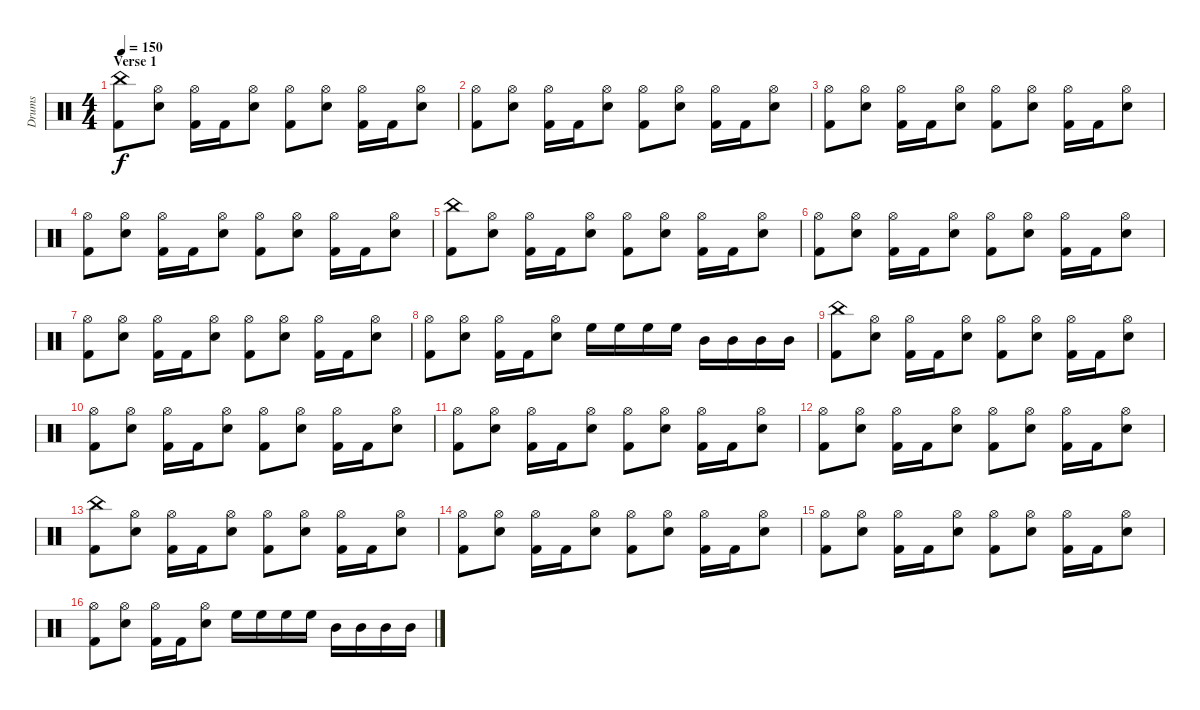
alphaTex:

\track ("Drums" "Drums") {instrument percussion}
\staff {score}
\articulation defaults
\ts (4 4)
\section ("" "Verse 1")
\tempo 150
\clef neutral
\ks c
("China (hit)" "Kick (hit) 2").8{dy f} ("Hi-Hat (open)" "Snare (hit) 2").8 ("Hi-Hat (open)" "Kick (hit) 2").16 "Kick (hit) 2".16 ("Hi-Hat (open)" "Snare (hit) 2").8 ("Hi-Hat (open)" "Kick (hit) 2").8 ("Hi-Hat (open)" "Snare (hit) 2").8 ("Hi-Hat (open)" "Kick (hit) 2").16 "Kick (hit) 2".16 ("Hi-Hat (open)" "Snare (hit) 2").8 |
("Hi-Hat (open)" "Kick (hit) 2").8 ("Hi-Hat (open)" "Snare (hit) 2").8 ("Hi-Hat (open)" "Kick (hit) 2").16 "Kick (hit) 2".16 ("Hi-Hat (open)" "Snare (hit) 2").8 ("Hi-Hat (open)" "Kick (hit) 2").8 ("Hi-Hat (open)" "Snare (hit) 2").8 ("Hi-Hat (open)" "Kick (hit) 2").16 "Kick (hit) 2".16 ("Hi-Hat (open)" "Snare (hit) 2").8 |
("Hi-Hat (open)" "Kick (hit) 2").8 ("Hi-Hat (open)" "Snare (hit) 2").8 ("Hi-Hat (open)" "Kick (hit) 2").16 "Kick (hit) 2".16 ("Hi-Hat (open)" "Snare (hit) 2").8 ("Hi-Hat (open)" "Kick (hit) 2").8 ("Hi-Hat (open)" "Snare (hit) 2").8 ("Hi-Hat (open)" "Kick (hit) 2").16 "Kick (hit) 2".16 ("Hi-Hat (open)" "Snare (hit) 2").8 |
("Hi-Hat (open)" "Kick (hit) 2").8 ("Hi-Hat (open)" "Snare (hit) 2").8 ("Hi-Hat (open)" "Kick (hit) 2").16 "Kick (hit) 2".16 ("Hi-Hat (open)" "Snare (hit) 2").8 ("Hi-Hat (open)" "Kick (hit) 2").8 ("Hi-Hat (open)" "Snare (hit) 2").8 ("Hi-Hat (open)" "Kick (hit) 2").16 "Kick (hit) 2".16 ("Hi-Hat (open)" "Snare (hit) 2").8 |
("China (hit)" "Kick (hit) 2").8 ("Hi-Hat (open)" "Snare (hit) 2").8 ("Hi-Hat (open)" "Kick (hit) 2").16 "Kick (hit) 2".16 ("Hi-Hat (open)" "Snare (hit) 2").8 ("Hi-Hat (open)" "Kick (hit) 2").8 ("Hi-Hat (open)" "Snare (hit) 2").8 ("Hi-Hat (open)" "Kick (hit) 2").16 "Kick (hit) 2".16 ("Hi-Hat (open)" "Snare (hit) 2").8 |
("Hi-Hat (open)" "Kick (hit) 2").8 ("Hi-Hat (open)" "Snare (hit) 2").8 ("Hi-Hat (open)" "Kick (hit) 2").16 "Kick (hit) 2".16 ("Hi-Hat (open)" "Snare (hit) 2").8 ("Hi-Hat (open)" "Kick (hit) 2").8 ("Hi-Hat (open)" "Snare (hit) 2").8 ("Hi-Hat (open)" "Kick (hit) 2").16 "Kick (hit) 2".16 ("Hi-Hat (open)" "Snare (hit) 2").8 |
("Hi-Hat (open)" "Kick (hit) 2").8 ("Hi-Hat (open)" "Snare (hit) 2").8 ("Hi-Hat (open)" "Kick (hit) 2").16 "Kick (hit) 2".16 ("Hi-Hat (open)" "Snare (hit) 2").8 ("Hi-Hat (open)" "Kick (hit) 2").8 ("Hi-Hat (open)" "Snare (hit) 2").8 ("Hi-Hat (open)" "Kick (hit) 2").16 "Kick (hit) 2".16 ("Hi-Hat (open)" "Snare (hit) 2").8 |
("Hi-Hat (open)" "Kick (hit) 2").8 ("Hi-Hat (open)" "Snare (hit) 2").8 ("Hi-Hat (open)" "Kick (hit) 2").16 "Kick (hit) 2".16 ("Hi-Hat (open)" "Snare (hit) 2").8 "High Floor Tom (hit)".16 "High Floor Tom (hit)".16 "High Floor Tom (hit)".16 "High Floor Tom (hit)".16 "Mid Tom (hit)".16 "Mid Tom (hit)".16 "Mid Tom (hit)".16 "Mid Tom (hit)".16 |
("China (hit)" "Kick (hit) 2").8 ("Hi-Hat (open)" "Snare (hit) 2").8 ("Hi-Hat (open)" "Kick (hit) 2").16 "Kick (hit) 2".16 ("Hi-Hat (open)" "Snare (hit) 2").8 ("Hi-Hat (open)" "Kick (hit) 2").8 ("Hi-Hat (open)" "Snare (hit) 2").8 ("Hi-Hat (open)" "Kick (hit) 2").16 "Kick (hit) 2".16 ("Hi-Hat (open)" "Snare (hit) 2").8 |
("Hi-Hat (open)" "Kick (hit) 2").8 ("Hi-Hat (open)" "Snare (hit) 2").8 ("Hi-Hat (open)" "Kick (hit) 2").16 "Kick (hit) 2".16 ("Hi-Hat (open)" "Snare (hit) 2").8 ("Hi-Hat (open)" "Kick (hit) 2").8 ("Hi-Hat (open)" "Snare (hit) 2").8 ("Hi-Hat (open)" "Kick (hit) 2").16 "Kick (hit) 2".16 ("Hi-Hat (open)" "Snare (hit) 2").8 |
("Hi-Hat (open)" "Kick (hit) 2").8 ("Hi-Hat (open)" "Snare (hit) 2").8 ("Hi-Hat (open)" "Kick (hit) 2").16 "Kick (hit) 2".16 ("Hi-Hat (open)" "Snare (hit) 2").8 ("Hi-Hat (open)" "Kick (hit) 2").8 ("Hi-Hat (open)" "Snare (hit) 2").8 ("Hi-Hat (open)" "Kick (hit) 2").16 "Kick (hit) 2".16 ("Hi-Hat (open)" "Snare (hit) 2").8 |
("Hi-Hat (open)" "Kick (hit) 2").8 ("Hi-Hat (open)" "Snare (hit) 2").8 ("Hi-Hat (open)" "Kick (hit) 2").16 "Kick (hit) 2".16 ("Hi-Hat (open)" "Snare (hit) 2").8 ("Hi-Hat (open)" "Kick (hit) 2").8 ("Hi-Hat (open)" "Snare (hit) 2").8 ("Hi-Hat (open)" "Kick (hit) 2").16 "Kick (hit) 2".16 ("Hi-Hat (open)" "Snare (hit) 2").8 |
("China (hit)" "Kick (hit) 2").8 ("Hi-Hat (open)" "Snare (hit) 2").8 ("Hi-Hat (open)" "Kick (hit) 2").16 "Kick (hit) 2".16 ("Hi-Hat (open)" "Snare (hit) 2").8 ("Hi-Hat (open)" "Kick (hit) 2").8 ("Hi-Hat (open)" "Snare (hit) 2").8 ("Hi-Hat (open)" "Kick (hit) 2").16 "Kick (hit) 2".16 ("Hi-Hat (open)" "Snare (hit) 2").8 |
("Hi-Hat (open)" "Kick (hit) 2").8 ("Hi-Hat (open)" "Snare (hit) 2").8 ("Hi-Hat (open)" "Kick (hit) 2").16 "Kick (hit) 2".16 ("Hi-Hat (open)" "Snare (hit) 2").8 ("Hi-Hat (open)" "Kick (hit) 2").8 ("Hi-Hat (open)" "Snare (hit) 2").8 ("Hi-Hat (open)" "Kick (hit) 2").16 "Kick (hit) 2".16 ("Hi-Hat (open)" "Snare (hit) 2").8 |
("Hi-Hat (open)" "Kick (hit) 2").8 ("Hi-Hat (open)" "Snare (hit) 2").8 ("Hi-Hat (open)" "Kick (hit) 2").16 "Kick (hit) 2".16 ("Hi-Hat (open)" "Snare (hit) 2").8 ("Hi-Hat (open)" "Kick (hit) 2").8 ("Hi-Hat (open)" "Snare (hit) 2").8 ("Hi-Hat (open)" "Kick (hit) 2").16 "Kick (hit) 2".16 ("Hi-Hat (open)" "Snare (hit) 2").8 |
("Hi-Hat (open)" "Kick (hit) 2").8 ("Hi-Hat (open)" "Snare (hit) 2").8 ("Hi-Hat (open)" "Kick (hit) 2").16 "Kick (hit) 2".16 ("Hi-Hat (open)" "Snare (hit) 2").8 "High Floor Tom (hit)".16 "High Floor Tom (hit)".16 "High Floor Tom (hit)".16 "High Floor Tom (hit)".16 "Mid Tom (hit)".16 "Mid Tom (hit)".16 "Mid Tom (hit)".16 "Mid Tom (hit)".16
